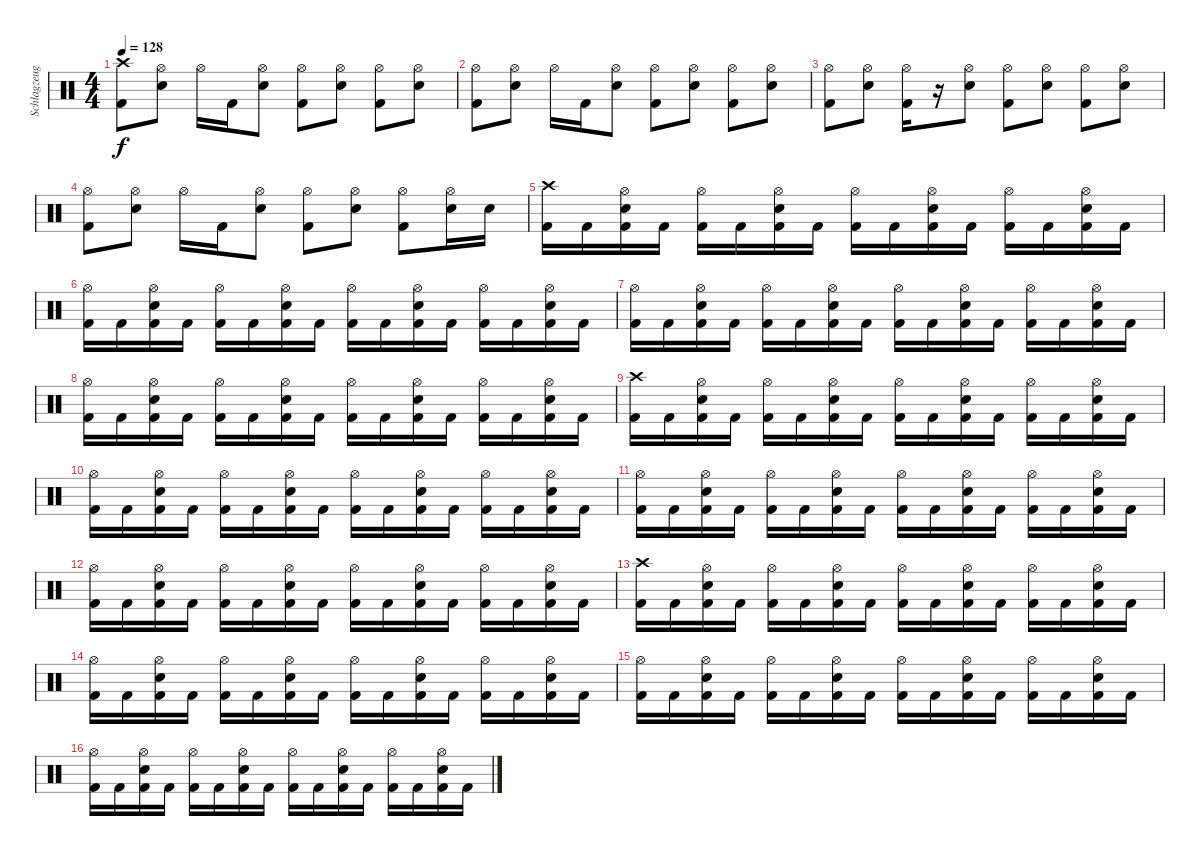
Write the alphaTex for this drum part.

\track ("Schlagzeug" "Schlagzeug") {instrument percussion}
\staff {score}
\articulation defaults
\ts (4 4)
\tempo 128
\clef neutral
\ks c
("Crash high (hit)" "Kick (hit) 2").8{dy f} ("Hi-Hat (open)" "Snare (hit) 2").8 "Hi-Hat (open)".16 "Kick (hit) 2".16 ("Hi-Hat (open)" "Snare (hit) 2").8 ("Hi-Hat (open)" "Kick (hit) 2").8 ("Hi-Hat (open)" "Snare (hit) 2").8 ("Hi-Hat (open)" "Kick (hit) 2").8 ("Hi-Hat (open)" "Snare (hit) 2").8 |
("Hi-Hat (open)" "Kick (hit) 2").8 ("Hi-Hat (open)" "Snare (hit) 2").8 "Hi-Hat (open)".16 "Kick (hit) 2".16 ("Hi-Hat (open)" "Snare (hit) 2").8 ("Hi-Hat (open)" "Kick (hit) 2").8 ("Hi-Hat (open)" "Snare (hit) 2").8 ("Hi-Hat (open)" "Kick (hit) 2").8 ("Hi-Hat (open)" "Snare (hit) 2").8 |
("Hi-Hat (open)" "Kick (hit) 2").8 ("Hi-Hat (open)" "Snare (hit) 2").8 ("Hi-Hat (open)" "Kick (hit) 2").16 r.16 ("Hi-Hat (open)" "Snare (hit) 2").8 ("Hi-Hat (open)" "Kick (hit) 2").8 ("Hi-Hat (open)" "Snare (hit) 2").8 ("Hi-Hat (open)" "Kick (hit) 2").8 ("Hi-Hat (open)" "Snare (hit) 2").8 |
("Hi-Hat (open)" "Kick (hit) 2").8 ("Hi-Hat (open)" "Snare (hit) 2").8 "Hi-Hat (open)".16 "Kick (hit) 2".16 ("Hi-Hat (open)" "Snare (hit) 2").8 ("Hi-Hat (open)" "Kick (hit) 2").8 ("Hi-Hat (open)" "Snare (hit) 2").8 ("Hi-Hat (open)" "Kick (hit) 2").8 ("Hi-Hat (open)" "Snare (hit) 2").16 "Snare (hit) 2".16 |
("Crash high (hit)" "Kick (hit) 2").16 "Kick (hit) 2".16 ("Hi-Hat (open)" "Snare (hit) 2" "Kick (hit) 2").16 "Kick (hit) 2".16 ("Hi-Hat (open)" "Kick (hit) 2").16 "Kick (hit) 2".16 ("Hi-Hat (open)" "Snare (hit) 2" "Kick (hit) 2").16 "Kick (hit) 2".16 ("Hi-Hat (open)" "Kick (hit) 2").16 "Kick (hit) 2".16 ("Hi-Hat (open)" "Snare (hit) 2" "Kick (hit) 2").16 "Kick (hit) 2".16 ("Hi-Hat (open)" "Kick (hit) 2").16 "Kick (hit) 2".16 ("Hi-Hat (open)" "Snare (hit) 2" "Kick (hit) 2").16 "Kick (hit) 2".16 |
("Hi-Hat (open)" "Kick (hit) 2").16 "Kick (hit) 2".16 ("Hi-Hat (open)" "Snare (hit) 2" "Kick (hit) 2").16 "Kick (hit) 2".16 ("Hi-Hat (open)" "Kick (hit) 2").16 "Kick (hit) 2".16 ("Hi-Hat (open)" "Snare (hit) 2" "Kick (hit) 2").16 "Kick (hit) 2".16 ("Hi-Hat (open)" "Kick (hit) 2").16 "Kick (hit) 2".16 ("Hi-Hat (open)" "Snare (hit) 2" "Kick (hit) 2").16 "Kick (hit) 2".16 ("Hi-Hat (open)" "Kick (hit) 2").16 "Kick (hit) 2".16 ("Hi-Hat (open)" "Snare (hit) 2" "Kick (hit) 2").16 "Kick (hit) 2".16 |
("Hi-Hat (open)" "Kick (hit) 2").16 "Kick (hit) 2".16 ("Hi-Hat (open)" "Snare (hit) 2" "Kick (hit) 2").16 "Kick (hit) 2".16 ("Hi-Hat (open)" "Kick (hit) 2").16 "Kick (hit) 2".16 ("Hi-Hat (open)" "Snare (hit) 2" "Kick (hit) 2").16 "Kick (hit) 2".16 ("Hi-Hat (open)" "Kick (hit) 2").16 "Kick (hit) 2".16 ("Hi-Hat (open)" "Snare (hit) 2" "Kick (hit) 2").16 "Kick (hit) 2".16 ("Hi-Hat (open)" "Kick (hit) 2").16 "Kick (hit) 2".16 ("Hi-Hat (open)" "Snare (hit) 2" "Kick (hit) 2").16 "Kick (hit) 2".16 |
("Hi-Hat (open)" "Kick (hit) 2").16 "Kick (hit) 2".16 ("Hi-Hat (open)" "Snare (hit) 2" "Kick (hit) 2").16 "Kick (hit) 2".16 ("Hi-Hat (open)" "Kick (hit) 2").16 "Kick (hit) 2".16 ("Hi-Hat (open)" "Snare (hit) 2" "Kick (hit) 2").16 "Kick (hit) 2".16 ("Hi-Hat (open)" "Kick (hit) 2").16 "Kick (hit) 2".16 ("Hi-Hat (open)" "Snare (hit) 2" "Kick (hit) 2").16 "Kick (hit) 2".16 ("Hi-Hat (open)" "Kick (hit) 2").16 "Kick (hit) 2".16 ("Hi-Hat (open)" "Snare (hit) 2" "Kick (hit) 2").16 "Kick (hit) 2".16 |
("Crash high (hit)" "Kick (hit) 2").16 "Kick (hit) 2".16 ("Hi-Hat (open)" "Snare (hit) 2" "Kick (hit) 2").16 "Kick (hit) 2".16 ("Hi-Hat (open)" "Kick (hit) 2").16 "Kick (hit) 2".16 ("Hi-Hat (open)" "Snare (hit) 2" "Kick (hit) 2").16 "Kick (hit) 2".16 ("Hi-Hat (open)" "Kick (hit) 2").16 "Kick (hit) 2".16 ("Hi-Hat (open)" "Snare (hit) 2" "Kick (hit) 2").16 "Kick (hit) 2".16 ("Hi-Hat (open)" "Kick (hit) 2").16 "Kick (hit) 2".16 ("Hi-Hat (open)" "Snare (hit) 2" "Kick (hit) 2").16 "Kick (hit) 2".16 |
("Hi-Hat (open)" "Kick (hit) 2").16 "Kick (hit) 2".16 ("Hi-Hat (open)" "Snare (hit) 2" "Kick (hit) 2").16 "Kick (hit) 2".16 ("Hi-Hat (open)" "Kick (hit) 2").16 "Kick (hit) 2".16 ("Hi-Hat (open)" "Snare (hit) 2" "Kick (hit) 2").16 "Kick (hit) 2".16 ("Hi-Hat (open)" "Kick (hit) 2").16 "Kick (hit) 2".16 ("Hi-Hat (open)" "Snare (hit) 2" "Kick (hit) 2").16 "Kick (hit) 2".16 ("Hi-Hat (open)" "Kick (hit) 2").16 "Kick (hit) 2".16 ("Hi-Hat (open)" "Snare (hit) 2" "Kick (hit) 2").16 "Kick (hit) 2".16 |
("Hi-Hat (open)" "Kick (hit) 2").16 "Kick (hit) 2".16 ("Hi-Hat (open)" "Snare (hit) 2" "Kick (hit) 2").16 "Kick (hit) 2".16 ("Hi-Hat (open)" "Kick (hit) 2").16 "Kick (hit) 2".16 ("Hi-Hat (open)" "Snare (hit) 2" "Kick (hit) 2").16 "Kick (hit) 2".16 ("Hi-Hat (open)" "Kick (hit) 2").16 "Kick (hit) 2".16 ("Hi-Hat (open)" "Snare (hit) 2" "Kick (hit) 2").16 "Kick (hit) 2".16 ("Hi-Hat (open)" "Kick (hit) 2").16 "Kick (hit) 2".16 ("Hi-Hat (open)" "Snare (hit) 2" "Kick (hit) 2").16 "Kick (hit) 2".16 |
("Hi-Hat (open)" "Kick (hit) 2").16 "Kick (hit) 2".16 ("Hi-Hat (open)" "Snare (hit) 2" "Kick (hit) 2").16 "Kick (hit) 2".16 ("Hi-Hat (open)" "Kick (hit) 2").16 "Kick (hit) 2".16 ("Hi-Hat (open)" "Snare (hit) 2" "Kick (hit) 2").16 "Kick (hit) 2".16 ("Hi-Hat (open)" "Kick (hit) 2").16 "Kick (hit) 2".16 ("Hi-Hat (open)" "Snare (hit) 2" "Kick (hit) 2").16 "Kick (hit) 2".16 ("Hi-Hat (open)" "Kick (hit) 2").16 "Kick (hit) 2".16 ("Hi-Hat (open)" "Snare (hit) 2" "Kick (hit) 2").16 "Kick (hit) 2".16 |
("Crash high (hit)" "Kick (hit) 2").16 "Kick (hit) 2".16 ("Hi-Hat (open)" "Snare (hit) 2" "Kick (hit) 2").16 "Kick (hit) 2".16 ("Hi-Hat (open)" "Kick (hit) 2").16 "Kick (hit) 2".16 ("Hi-Hat (open)" "Snare (hit) 2" "Kick (hit) 2").16 "Kick (hit) 2".16 ("Hi-Hat (open)" "Kick (hit) 2").16 "Kick (hit) 2".16 ("Hi-Hat (open)" "Snare (hit) 2" "Kick (hit) 2").16 "Kick (hit) 2".16 ("Hi-Hat (open)" "Kick (hit) 2").16 "Kick (hit) 2".16 ("Hi-Hat (open)" "Snare (hit) 2" "Kick (hit) 2").16 "Kick (hit) 2".16 |
("Hi-Hat (open)" "Kick (hit) 2").16 "Kick (hit) 2".16 ("Hi-Hat (open)" "Snare (hit) 2" "Kick (hit) 2").16 "Kick (hit) 2".16 ("Hi-Hat (open)" "Kick (hit) 2").16 "Kick (hit) 2".16 ("Hi-Hat (open)" "Snare (hit) 2" "Kick (hit) 2").16 "Kick (hit) 2".16 ("Hi-Hat (open)" "Kick (hit) 2").16 "Kick (hit) 2".16 ("Hi-Hat (open)" "Snare (hit) 2" "Kick (hit) 2").16 "Kick (hit) 2".16 ("Hi-Hat (open)" "Kick (hit) 2").16 "Kick (hit) 2".16 ("Hi-Hat (open)" "Snare (hit) 2" "Kick (hit) 2").16 "Kick (hit) 2".16 |
("Hi-Hat (open)" "Kick (hit) 2").16 "Kick (hit) 2".16 ("Hi-Hat (open)" "Snare (hit) 2" "Kick (hit) 2").16 "Kick (hit) 2".16 ("Hi-Hat (open)" "Kick (hit) 2").16 "Kick (hit) 2".16 ("Hi-Hat (open)" "Snare (hit) 2" "Kick (hit) 2").16 "Kick (hit) 2".16 ("Hi-Hat (open)" "Kick (hit) 2").16 "Kick (hit) 2".16 ("Hi-Hat (open)" "Snare (hit) 2" "Kick (hit) 2").16 "Kick (hit) 2".16 ("Hi-Hat (open)" "Kick (hit) 2").16 "Kick (hit) 2".16 ("Hi-Hat (open)" "Snare (hit) 2" "Kick (hit) 2").16 "Kick (hit) 2".16 |
("Hi-Hat (open)" "Kick (hit) 2").16 "Kick (hit) 2".16 ("Hi-Hat (open)" "Snare (hit) 2" "Kick (hit) 2").16 "Kick (hit) 2".16 ("Hi-Hat (open)" "Kick (hit) 2").16 "Kick (hit) 2".16 ("Hi-Hat (open)" "Snare (hit) 2" "Kick (hit) 2").16 "Kick (hit) 2".16 ("Hi-Hat (open)" "Kick (hit) 2").16 "Kick (hit) 2".16 ("Hi-Hat (open)" "Snare (hit) 2" "Kick (hit) 2").16 "Kick (hit) 2".16 ("Hi-Hat (open)" "Kick (hit) 2").16 "Kick (hit) 2".16 ("Hi-Hat (open)" "Snare (hit) 2" "Kick (hit) 2").16 "Kick (hit) 2".16
